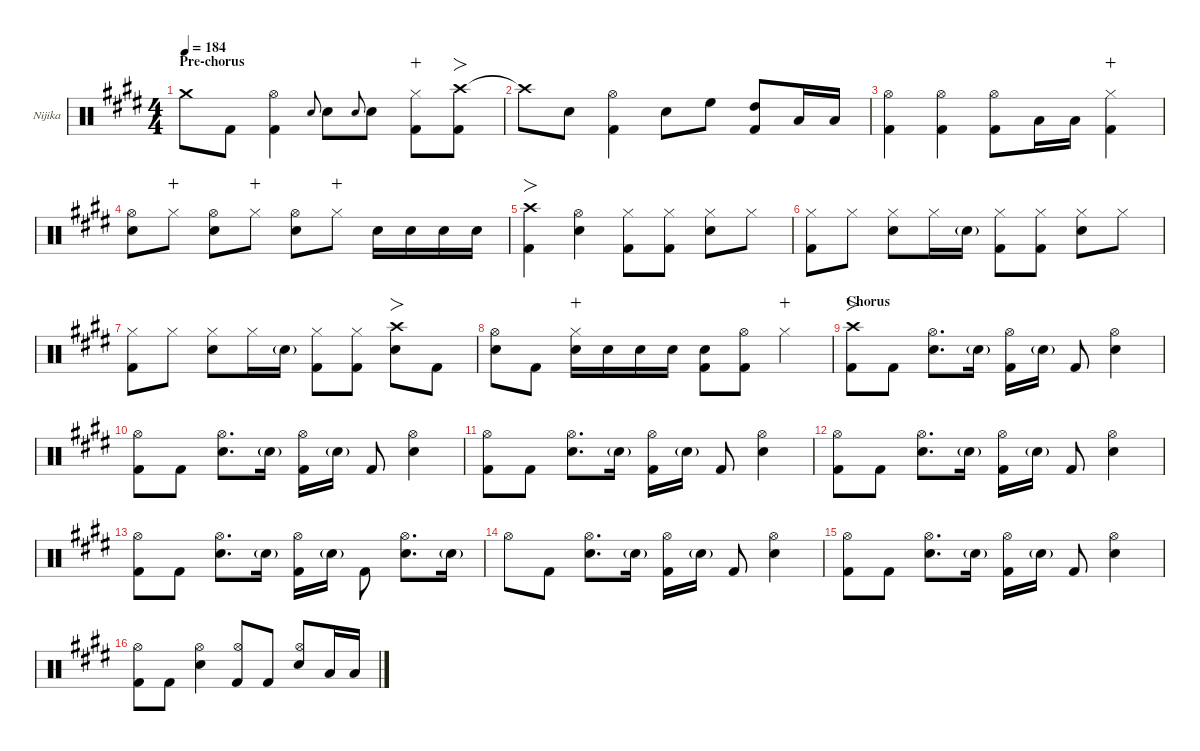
\defaultSystemsLayout 4
\hideDynamics
\bracketExtendMode nobrackets
\firstSystemTrackNameOrientation horizontal
\track ("Nijika" "Nijika") {defaultSystemsLayout 4 instrument percussion}
\staff {score}
\articulation defaults
\ts (4 4)
\section ("" "Pre-chorus")
\tempo 184
\clef neutral
\ks e "Crash medium (hit)"{t acc forcenatural}.8{dy f beam Down} "Kick (hit) 2"{acc forcenatural}.8{beam Down}
("Hi-Hat (open)"{acc forcenatural} "Kick (hit) 2"{acc forcenatural}).4{beam Down} "Snare (hit) 2"{acc forcenatural}.8{gr onbeat beam Up} "Snare (hit) 2"{acc forcenatural}.8{beam Down} "Snare (hit) 2"{acc forcenatural}.8{gr onbeat beam Up} "Snare (hit) 2"{acc forcenatural}.8{beam Down} ("Hi-Hat (closed)"{acc forcenatural} "Kick (hit) 2"{acc forcenatural}).8{dy mp wahc beam Down} ("Crash high (hit)"{acc forcenatural} "Kick (hit) 2"{acc forcenatural}).8{fo dy f beam Down} |
"Crash high (hit)"{t acc forcenatural}.8{beam Down} "Snare (hit) 2"{acc forcenatural}.8{beam Down} ("Hi-Hat (open)"{acc forcenatural} "Kick (hit) 2"{acc forcenatural}).4{beam Down} "Snare (hit) 2"{acc forcenatural}.8{beam Down} "High Floor Tom (hit)"{acc forcenatural}.8{beam Down beam split} ("High Tom (hit)"{acc forcenatural} "Kick (hit) 2"{acc forcenatural}).8{beam Up} "Low Tom (hit)"{acc forcenatural}.16{beam Up} "Low Tom (hit)"{acc forcenatural}.16{beam Up} |
("Hi-Hat (open)"{acc forcenatural} "Kick (hit) 2"{acc forcenatural}).4{beam Down} ("Hi-Hat (open)"{acc forcenatural} "Kick (hit) 2"{acc forcenatural}).4{beam Down} ("Hi-Hat (open)"{acc forcenatural} "Kick (hit) 2"{acc forcenatural}).8{beam Down} "Low Tom (hit)"{acc forcenatural}.16{beam Down} "Low Tom (hit)"{acc forcenatural}.16{beam Down} ("Hi-Hat (closed)"{acc forcenatural} "Kick (hit) 2"{acc forcenatural}).4{dy mp wahc beam Down} |
("Hi-Hat (open)"{acc forcenatural} "Snare (hit) 2"{acc forcenatural}).8{dy f beam Down} "Hi-Hat (closed)"{acc forcenatural}.8{dy mp wahc beam Down} ("Hi-Hat (open)"{acc forcenatural} "Snare (hit) 2"{acc forcenatural}).8{dy f beam Down} "Hi-Hat (closed)"{acc forcenatural}.8{dy mp wahc beam Down} ("Hi-Hat (open)"{acc forcenatural} "Snare (hit) 2"{acc forcenatural}).8{dy f beam Down} "Hi-Hat (closed)"{acc forcenatural}.8{dy mp wahc beam Down beam split} "Snare (hit) 2"{acc forcenatural}.16{dy f beam Down} "Snare (hit) 2"{acc forcenatural}.16{dy mf beam Down} "Snare (hit) 2"{acc forcenatural}.16{dy f beam Down} "Snare (hit) 2"{acc forcenatural}.16{dy mf beam Down} |
("Crash high (hit)"{acc forcenatural} "Kick (hit) 2"{acc forcenatural}).4{fo dy f beam Down} ("Hi-Hat (open)"{acc forcenatural} "Snare (hit) 2"{acc forcenatural}).4{beam Down} ("Hi-Hat (closed)"{acc forcenatural} "Kick (hit) 2"{acc forcenatural}).8{beam Down} ("Hi-Hat (closed)"{acc forcenatural} "Kick (hit) 2"{acc forcenatural}).8{dy mf beam Down} ("Hi-Hat (closed)"{acc forcenatural} "Snare (hit) 2"{acc forcenatural}).8{dy f beam Down} "Hi-Hat (closed)"{acc forcenatural}.8{dy mf beam Down} |
("Hi-Hat (closed)"{acc forcenatural} "Kick (hit) 2"{acc forcenatural}).8{dy f beam Down} "Hi-Hat (closed)"{acc forcenatural}.8{dy mf beam Down beam split} ("Hi-Hat (closed)"{acc forcenatural} "Snare (hit) 2"{acc forcenatural}).8{dy f beam Down} "Hi-Hat (closed)"{acc forcenatural}.16{dy mf beam Down} "Snare (hit) 2"{g acc forcenatural}.16{beam Down} ("Hi-Hat (closed)"{acc forcenatural} "Kick (hit) 2"{acc forcenatural}).8{dy f beam Down} ("Hi-Hat (closed)"{acc forcenatural} "Kick (hit) 2"{acc forcenatural}).8{dy mf beam Down} ("Hi-Hat (closed)"{acc forcenatural} "Snare (hit) 2"{acc forcenatural}).8{dy f beam Down} "Hi-Hat (closed)"{acc forcenatural}.8{dy mf beam Down} |
("Hi-Hat (closed)"{acc forcenatural} "Kick (hit) 2"{acc forcenatural}).8{dy f beam Down} "Hi-Hat (closed)"{acc forcenatural}.8{dy mf beam Down beam split} ("Hi-Hat (closed)"{acc forcenatural} "Snare (hit) 2"{acc forcenatural}).8{dy f beam Down} "Hi-Hat (closed)"{acc forcenatural}.16{dy mf beam Down} "Snare (hit) 2"{g acc forcenatural}.16{beam Down} ("Hi-Hat (closed)"{acc forcenatural} "Kick (hit) 2"{acc forcenatural}).8{dy f beam Down} ("Hi-Hat (closed)"{acc forcenatural} "Kick (hit) 2"{acc forcenatural}).8{dy mf beam Down beam split} ("Crash high (hit)"{acc forcenatural} "Snare (hit) 2"{acc forcenatural}).8{fo dy f beam Down} "Kick (hit) 2"{acc forcenatural}.8{beam Down} |
("Hi-Hat (open)"{acc forcenatural} "Snare (hit) 2"{acc forcenatural}).8{beam Down} "Kick (hit) 2"{acc forcenatural}.8{beam Down} ("Snare (hit) 2"{acc forcenatural} "Hi-Hat (closed)"{acc forcenatural}).16{wahc beam Down} "Snare (hit) 2"{acc forcenatural}.16{dy mf beam Down} "Snare (hit) 2"{acc forcenatural}.16{dy f beam Down} "Snare (hit) 2"{acc forcenatural}.16{dy mf beam Down} ("Snare (hit) 2"{acc forcenatural} "Kick (hit) 2"{acc forcenatural}).8{beam Down} ("Hi-Hat (open)"{acc forcenatural} "Kick (hit) 2"{acc forcenatural}).8{dy f beam Down} "Hi-Hat (closed)"{acc forcenatural}.4{dy mp wahc beam Down} |
\section ("" "Chorus")
("Crash high (hit)"{acc forcenatural} "Kick (hit) 2"{acc forcenatural}).8{fo dy f beam Down} "Kick (hit) 2"{acc forcenatural}.8{dy mf beam Down} ("Hi-Hat (open)"{acc forcenatural} "Snare (hit) 2"{acc forcenatural}).8{d dy f beam Down} "Snare (hit) 2"{g acc forcenatural}.16{dy mf beam Down} ("Hi-Hat (open)"{acc forcenatural} "Kick (hit) 2"{acc forcenatural}).16{dy f beam Down} "Snare (hit) 2"{g acc forcenatural}.16{dy mf beam Down beam split} "Kick (hit) 2"{acc forcenatural}.8{beam Up} ("Hi-Hat (open)"{acc forcenatural} "Snare (hit) 2"{acc forcenatural}).4{dy f beam Down} |
("Hi-Hat (open)"{acc forcenatural} "Kick (hit) 2"{acc forcenatural}).8{beam Down} "Kick (hit) 2"{acc forcenatural}.8{dy mf beam Down} ("Hi-Hat (open)"{acc forcenatural} "Snare (hit) 2"{acc forcenatural}).8{d dy f beam Down} "Snare (hit) 2"{g acc forcenatural}.16{dy mf beam Down} ("Hi-Hat (open)"{acc forcenatural} "Kick (hit) 2"{acc forcenatural}).16{dy f beam Down} "Snare (hit) 2"{g acc forcenatural}.16{dy mf beam Down beam split} "Kick (hit) 2"{acc forcenatural}.8{beam Up} ("Hi-Hat (open)"{acc forcenatural} "Snare (hit) 2"{acc forcenatural}).4{dy f beam Down} |
("Hi-Hat (open)"{acc forcenatural} "Kick (hit) 2"{acc forcenatural}).8{beam Down} "Kick (hit) 2"{acc forcenatural}.8{beam Down} ("Hi-Hat (open)"{acc forcenatural} "Snare (hit) 2"{acc forcenatural}).8{d beam Down} "Snare (hit) 2"{g acc forcenatural}.16{dy mf beam Down} ("Hi-Hat (open)"{acc forcenatural} "Kick (hit) 2"{acc forcenatural}).16{dy f beam Down} "Snare (hit) 2"{g acc forcenatural}.16{dy mf beam Down beam split} "Kick (hit) 2"{acc forcenatural}.8{beam Up} ("Hi-Hat (open)"{acc forcenatural} "Snare (hit) 2"{acc forcenatural}).4{dy f beam Down} |
("Hi-Hat (open)"{acc forcenatural} "Kick (hit) 2"{acc forcenatural}).8{beam Down} "Kick (hit) 2"{acc forcenatural}.8{beam Down} ("Hi-Hat (open)"{acc forcenatural} "Snare (hit) 2"{acc forcenatural}).8{d beam Down} "Snare (hit) 2"{g acc forcenatural}.16{dy mf beam Down} ("Hi-Hat (open)"{acc forcenatural} "Kick (hit) 2"{acc forcenatural}).16{dy f beam Down} "Snare (hit) 2"{g acc forcenatural}.16{dy mf beam Down beam split} "Kick (hit) 2"{acc forcenatural}.8{beam Up} ("Hi-Hat (open)"{acc forcenatural} "Snare (hit) 2"{acc forcenatural}).4{dy f beam Down} |
("Hi-Hat (open)"{acc forcenatural} "Kick (hit) 2"{acc forcenatural}).8{beam Down} "Kick (hit) 2"{acc forcenatural}.8{beam Down} ("Hi-Hat (open)"{acc forcenatural} "Snare (hit) 2"{acc forcenatural}).8{d beam Down} "Snare (hit) 2"{g acc forcenatural}.16{dy mf beam Down} ("Hi-Hat (open)"{acc forcenatural} "Kick (hit) 2"{acc forcenatural}).16{dy f beam Down} "Snare (hit) 2"{g acc forcenatural}.16{dy mf beam Down beam split} "Kick (hit) 2"{acc forcenatural}.8{dy f beam Down} ("Hi-Hat (open)"{acc forcenatural} "Snare (hit) 2"{acc forcenatural}).8{d beam Down} "Snare (hit) 2"{g acc forcenatural}.16{dy mf beam Down} |
"Hi-Hat (open)"{acc forcenatural}.8{dy f beam Down} "Kick (hit) 2"{acc forcenatural}.8{beam Down} ("Hi-Hat (open)"{acc forcenatural} "Snare (hit) 2"{acc forcenatural}).8{d beam Down} "Snare (hit) 2"{g acc forcenatural}.16{dy mf beam Down} ("Hi-Hat (open)"{acc forcenatural} "Kick (hit) 2"{acc forcenatural}).16{dy f beam Down} "Snare (hit) 2"{g acc forcenatural}.16{dy mf beam Down beam split} "Kick (hit) 2"{acc forcenatural}.8{dy f beam Up} ("Hi-Hat (open)"{acc forcenatural} "Snare (hit) 2"{acc forcenatural}).4{beam Down} |
("Hi-Hat (open)"{acc forcenatural} "Kick (hit) 2"{acc forcenatural}).8{beam Down} "Kick (hit) 2"{acc forcenatural}.8{beam Down} ("Hi-Hat (open)"{acc forcenatural} "Snare (hit) 2"{acc forcenatural}).8{d beam Down} "Snare (hit) 2"{g acc forcenatural}.16{dy mf beam Down} ("Hi-Hat (open)"{acc forcenatural} "Kick (hit) 2"{acc forcenatural}).16{dy f beam Down} "Snare (hit) 2"{g acc forcenatural}.16{dy mf beam Down beam split} "Kick (hit) 2"{acc forcenatural}.8{dy f beam Up} ("Hi-Hat (open)"{acc forcenatural} "Snare (hit) 2"{acc forcenatural}).4{beam Down} |
("Hi-Hat (open)"{acc forcenatural} "Kick (hit) 2"{acc forcenatural}).8{beam Down} "Kick (hit) 2"{acc forcenatural}.8{beam Down} ("Hi-Hat (open)"{acc forcenatural} "Snare (hit) 2"{acc forcenatural}).4{beam Down} ("Hi-Hat (open)"{acc forcenatural} "Kick (hit) 2"{acc forcenatural}).8{beam Up} "Kick (hit) 2"{acc forcenatural}.8{beam Up} ("Hi-Hat (open)"{acc forcenatural} "Snare (hit) 2"{acc forcenatural}).8{beam Up} "Low Tom (hit)"{acc forcenatural}.16{beam Up} "Low Tom (hit)"{acc forcenatural}.16{beam Up}
